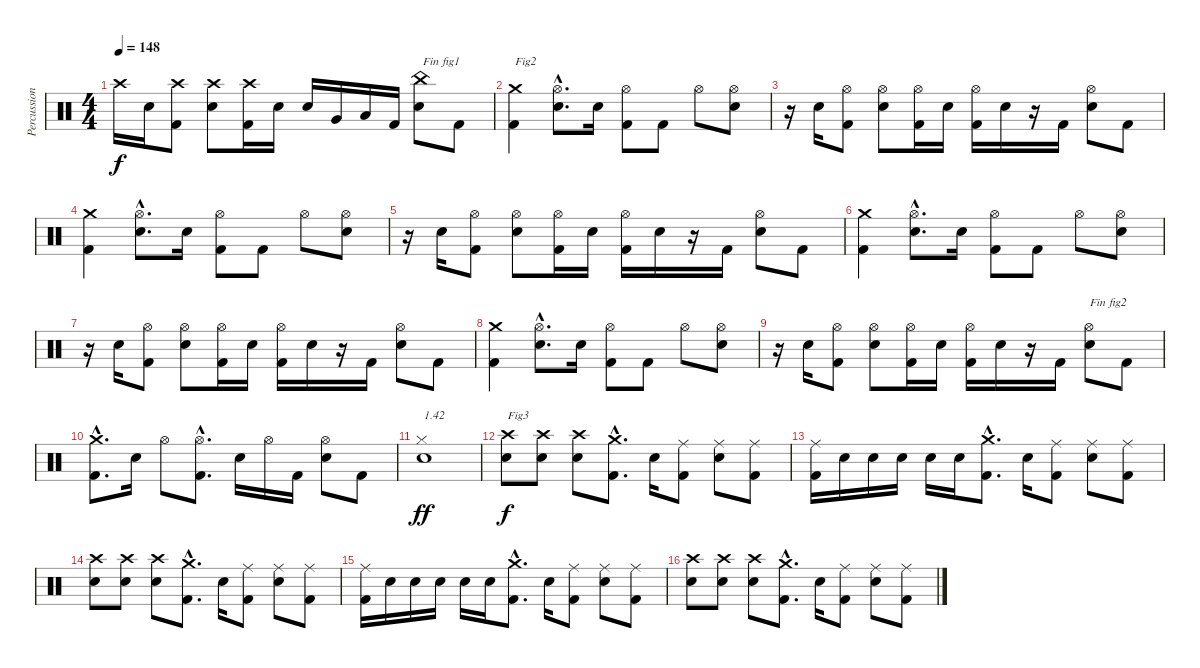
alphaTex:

\track ("Percussions" "Percussion") {instrument percussion}
\staff {score}
\articulation defaults
\ts (4 4)
\tempo 148
\clef neutral
\ks c "Crash high (hit)".16{dy f} "Electric Snare (hit)".16
("Kick (hit) 2" "Crash high (hit)").8 ("Electric Snare (hit)" "Crash high (hit)").8 ("Kick (hit) 2" "Crash high (hit)").16 "Electric Snare (hit)".16 "Electric Snare (hit)".16 "Very Low Tom (hit)".16 "Low Floor Tom (hit)".16 "Kick (hit) 2".16 ("Electric Snare (hit)" "China (hit)").8{txt "Fin fig1"} "Kick (hit) 2".8 |
("Kick (hit) 2" "Crash medium (hit)").4{txt "Fig2"} ("Electric Snare (hit)"{hac} "Hi-Hat (open)"{hac}).8{d} "Electric Snare (hit)".16 ("Kick (hit) 2" "Hi-Hat (open)").8 "Kick (hit) 2".8 "Hi-Hat (open)".8 ("Electric Snare (hit)" "Hi-Hat (open)").8 |
r.16 "Electric Snare (hit)".16 ("Kick (hit) 2" "Hi-Hat (open)").8 ("Electric Snare (hit)" "Hi-Hat (open)").8 ("Kick (hit) 2" "Hi-Hat (open)").16 "Electric Snare (hit)".16 ("Kick (hit) 2" "Hi-Hat (open)").16 "Electric Snare (hit)".16 r.16 "Kick (hit) 2".16 ("Electric Snare (hit)" "Hi-Hat (open)").8 "Kick (hit) 2".8 |
("Kick (hit) 2" "Crash medium (hit)").4 ("Electric Snare (hit)"{hac} "Hi-Hat (open)"{hac}).8{d} "Electric Snare (hit)".16 ("Kick (hit) 2" "Hi-Hat (open)").8 "Kick (hit) 2".8 "Hi-Hat (open)".8 ("Electric Snare (hit)" "Hi-Hat (open)").8 |
r.16 "Electric Snare (hit)".16 ("Kick (hit) 2" "Hi-Hat (open)").8 ("Electric Snare (hit)" "Hi-Hat (open)").8 ("Kick (hit) 2" "Hi-Hat (open)").16 "Electric Snare (hit)".16 ("Kick (hit) 2" "Hi-Hat (open)").16 "Electric Snare (hit)".16 r.16 "Kick (hit) 2".16 ("Electric Snare (hit)" "Hi-Hat (open)").8 "Kick (hit) 2".8 |
("Kick (hit) 2" "Crash medium (hit)").4 ("Electric Snare (hit)"{hac} "Hi-Hat (open)"{hac}).8{d} "Electric Snare (hit)".16 ("Kick (hit) 2" "Hi-Hat (open)").8 "Kick (hit) 2".8 "Hi-Hat (open)".8 ("Electric Snare (hit)" "Hi-Hat (open)").8 |
r.16 "Electric Snare (hit)".16 ("Kick (hit) 2" "Hi-Hat (open)").8 ("Electric Snare (hit)" "Hi-Hat (open)").8 ("Kick (hit) 2" "Hi-Hat (open)").16 "Electric Snare (hit)".16 ("Kick (hit) 2" "Hi-Hat (open)").16 "Electric Snare (hit)".16 r.16 "Kick (hit) 2".16 ("Electric Snare (hit)" "Hi-Hat (open)").8 "Kick (hit) 2".8 |
("Kick (hit) 2" "Crash medium (hit)").4 ("Electric Snare (hit)"{hac} "Hi-Hat (open)"{hac}).8{d} "Electric Snare (hit)".16 ("Kick (hit) 2" "Hi-Hat (open)").8 "Kick (hit) 2".8 "Hi-Hat (open)".8 ("Electric Snare (hit)" "Hi-Hat (open)").8 |
r.16 "Electric Snare (hit)".16 ("Kick (hit) 2" "Hi-Hat (open)").8 ("Electric Snare (hit)" "Hi-Hat (open)").8 ("Kick (hit) 2" "Hi-Hat (open)").16 "Electric Snare (hit)".16 ("Kick (hit) 2" "Hi-Hat (open)").16 "Electric Snare (hit)".16 r.16 "Kick (hit) 2".16 ("Electric Snare (hit)" "Hi-Hat (open)").8{txt "Fin fig2"} "Kick (hit) 2".8 |
("Kick (hit) 2"{hac} "Crash medium (hit)"{hac}).8{d} "Electric Snare (hit)".16 "Hi-Hat (open)".8 ("Kick (hit) 2"{hac} "Hi-Hat (open)"{hac}).8{d} "Electric Snare (hit)".16 "Hi-Hat (open)".16 "Kick (hit) 2".16 ("Electric Snare (hit)" "Hi-Hat (open)").8 "Kick (hit) 2".8 |
("Electric Snare (hit)" "Hi-Hat (closed)").1{txt "1.42" dy ff} |
("Electric Snare (hit)" "Crash high (hit)").8{txt "Fig3" dy f} ("Electric Snare (hit)" "Crash high (hit)").8 ("Electric Snare (hit)" "Crash high (hit)").8 ("Kick (hit) 2"{hac} "Crash medium (hit)"{hac}).8{d} "Electric Snare (hit)".16 ("Kick (hit) 2" "Ride (middle)").8 ("Electric Snare (hit)" "Ride (middle)").8 ("Kick (hit) 2" "Ride (middle)").8 |
("Kick (hit) 2" "Ride (middle)").16 "Electric Snare (hit)".16 "Electric Snare (hit)".16 "Electric Snare (hit)".16 "Electric Snare (hit)".16 "Electric Snare (hit)".16 ("Kick (hit) 2"{hac} "Crash medium (hit)"{hac}).8{d} "Electric Snare (hit)".16 ("Kick (hit) 2" "Ride (middle)").8 ("Electric Snare (hit)" "Ride (middle)").8 ("Kick (hit) 2" "Ride (middle)").8 |
("Electric Snare (hit)" "Crash high (hit)").8 ("Electric Snare (hit)" "Crash high (hit)").8 ("Electric Snare (hit)" "Crash high (hit)").8 ("Kick (hit) 2"{hac} "Crash medium (hit)"{hac}).8{d} "Electric Snare (hit)".16 ("Kick (hit) 2" "Ride (middle)").8 ("Electric Snare (hit)" "Ride (middle)").8 ("Kick (hit) 2" "Ride (middle)").8 |
("Kick (hit) 2" "Ride (middle)").16 "Electric Snare (hit)".16 "Electric Snare (hit)".16 "Electric Snare (hit)".16 "Electric Snare (hit)".16 "Electric Snare (hit)".16 ("Kick (hit) 2"{hac} "Crash medium (hit)"{hac}).8{d} "Electric Snare (hit)".16 ("Kick (hit) 2" "Ride (middle)").8 ("Electric Snare (hit)" "Ride (middle)").8 ("Kick (hit) 2" "Ride (middle)").8 |
("Electric Snare (hit)" "Crash high (hit)").8 ("Electric Snare (hit)" "Crash high (hit)").8 ("Electric Snare (hit)" "Crash high (hit)").8 ("Kick (hit) 2"{hac} "Crash medium (hit)"{hac}).8{d} "Electric Snare (hit)".16 ("Kick (hit) 2" "Ride (middle)").8 ("Electric Snare (hit)" "Ride (middle)").8 ("Kick (hit) 2" "Ride (middle)").8
